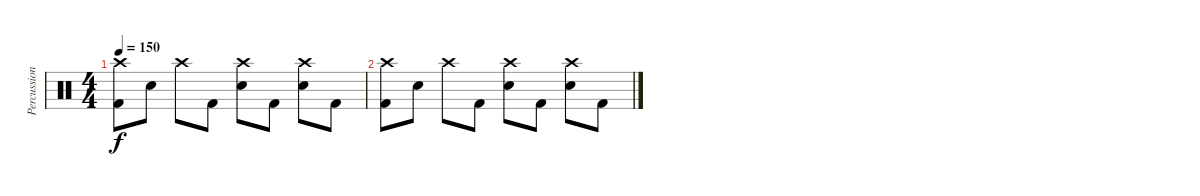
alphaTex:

\track ("Percussion" "Percussion") {instrument percussion}
\staff {score}
\articulation defaults
\ts (4 4)
\tempo 150
\clef neutral
\ks c
("Crash high (hit)" "Kick (hit) 2").8{dy f} "Snare (hit) 2".8 "Crash high (hit)".8 "Kick (hit) 2".8 ("Crash high (hit)" "Snare (hit) 2").8 "Kick (hit) 2".8 ("Crash high (hit)" "Snare (hit) 2").8 "Kick (hit) 2".8 |
("Crash high (hit)" "Kick (hit) 2").8 "Snare (hit) 2".8 "Crash high (hit)".8 "Kick (hit) 2".8 ("Crash high (hit)" "Snare (hit) 2").8 "Kick (hit) 2".8 ("Crash high (hit)" "Snare (hit) 2").8 "Kick (hit) 2".8
